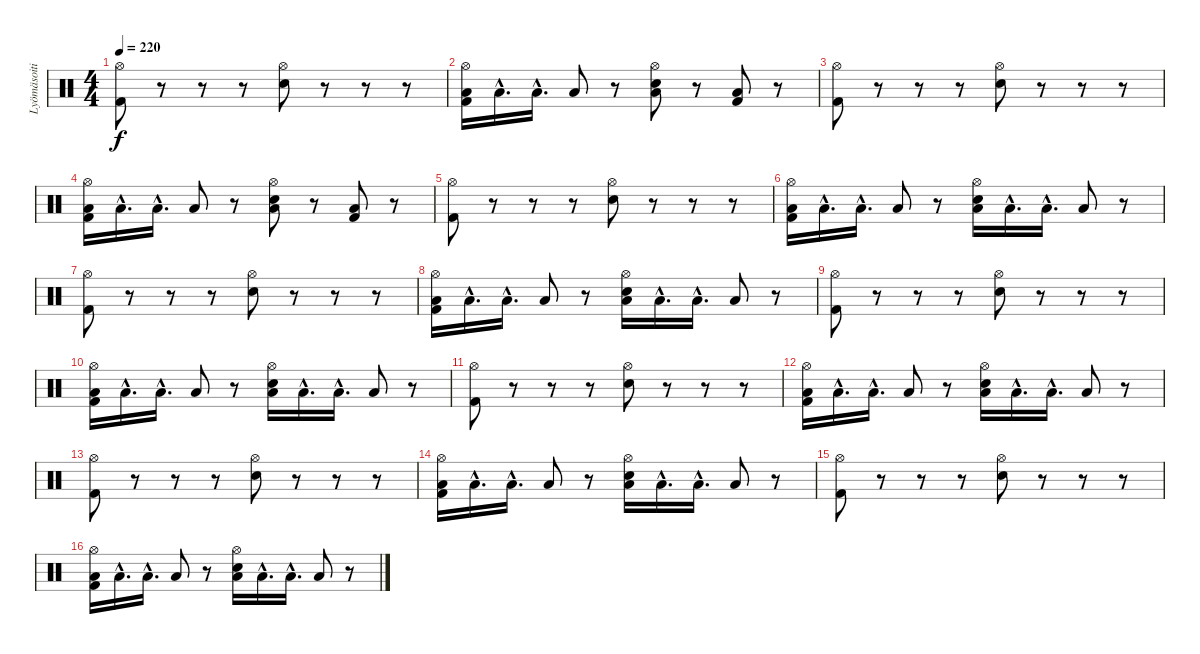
\track ("Lyömäsoitin" "Lyömäsoiti") {instrument percussion}
\staff {score}
\articulation defaults
\ts (4 4)
\tempo 220
\clef neutral
\ks c
("Hi-Hat (open)" "Kick (hit) 2").8{dy f} r.8 r.8 r.8 ("Hi-Hat (open)" "Electric Snare (hit)").8 r.8 r.8 r.8 |
("Low Floor Tom (hit)" "Hi-Hat (open)" "Kick (hit) 2").16 "Low Floor Tom (hit)"{hac}.16{d} "Low Floor Tom (hit)"{hac}.16{d} "Low Floor Tom (hit)".8 r.8 ("Low Floor Tom (hit)" "Hi-Hat (open)" "Electric Snare (hit)").8 r.8 ("Low Floor Tom (hit)" "Kick (hit) 2").8 r.8 |
("Hi-Hat (open)" "Kick (hit) 2").8 r.8 r.8 r.8 ("Hi-Hat (open)" "Electric Snare (hit)").8 r.8 r.8 r.8 |
("Low Floor Tom (hit)" "Hi-Hat (open)" "Kick (hit) 2").16 "Low Floor Tom (hit)"{hac}.16{d} "Low Floor Tom (hit)"{hac}.16{d} "Low Floor Tom (hit)".8 r.8 ("Low Floor Tom (hit)" "Hi-Hat (open)" "Electric Snare (hit)").8 r.8 ("Low Floor Tom (hit)" "Kick (hit) 2").8 r.8 |
("Hi-Hat (open)" "Kick (hit) 2").8 r.8 r.8 r.8 ("Hi-Hat (open)" "Electric Snare (hit)").8 r.8 r.8 r.8 |
("Low Floor Tom (hit)" "Hi-Hat (open)" "Kick (hit) 2").16 "Low Floor Tom (hit)"{hac}.16{d} "Low Floor Tom (hit)"{hac}.16{d} "Low Floor Tom (hit)".8 r.8 ("Low Floor Tom (hit)" "Hi-Hat (open)" "Electric Snare (hit)").16 "Low Floor Tom (hit)"{hac}.16{d} "Low Floor Tom (hit)"{hac}.16{d} "Low Floor Tom (hit)".8 r.8 |
("Hi-Hat (open)" "Kick (hit) 2").8 r.8 r.8 r.8 ("Hi-Hat (open)" "Electric Snare (hit)").8 r.8 r.8 r.8 |
("Low Floor Tom (hit)" "Hi-Hat (open)" "Kick (hit) 2").16 "Low Floor Tom (hit)"{hac}.16{d} "Low Floor Tom (hit)"{hac}.16{d} "Low Floor Tom (hit)".8 r.8 ("Low Floor Tom (hit)" "Hi-Hat (open)" "Electric Snare (hit)").16 "Low Floor Tom (hit)"{hac}.16{d} "Low Floor Tom (hit)"{hac}.16{d} "Low Floor Tom (hit)".8 r.8 |
("Hi-Hat (open)" "Kick (hit) 2").8 r.8 r.8 r.8 ("Hi-Hat (open)" "Electric Snare (hit)").8 r.8 r.8 r.8 |
("Low Floor Tom (hit)" "Hi-Hat (open)" "Kick (hit) 2").16 "Low Floor Tom (hit)"{hac}.16{d} "Low Floor Tom (hit)"{hac}.16{d} "Low Floor Tom (hit)".8 r.8 ("Low Floor Tom (hit)" "Hi-Hat (open)" "Electric Snare (hit)").16 "Low Floor Tom (hit)"{hac}.16{d} "Low Floor Tom (hit)"{hac}.16{d} "Low Floor Tom (hit)".8 r.8 |
("Hi-Hat (open)" "Kick (hit) 2").8 r.8 r.8 r.8 ("Hi-Hat (open)" "Electric Snare (hit)").8 r.8 r.8 r.8 |
("Low Floor Tom (hit)" "Hi-Hat (open)" "Kick (hit) 2").16 "Low Floor Tom (hit)"{hac}.16{d} "Low Floor Tom (hit)"{hac}.16{d} "Low Floor Tom (hit)".8 r.8 ("Low Floor Tom (hit)" "Hi-Hat (open)" "Electric Snare (hit)").16 "Low Floor Tom (hit)"{hac}.16{d} "Low Floor Tom (hit)"{hac}.16{d} "Low Floor Tom (hit)".8 r.8 |
("Hi-Hat (open)" "Kick (hit) 2").8 r.8 r.8 r.8 ("Hi-Hat (open)" "Electric Snare (hit)").8 r.8 r.8 r.8 |
("Low Floor Tom (hit)" "Hi-Hat (open)" "Kick (hit) 2").16 "Low Floor Tom (hit)"{hac}.16{d} "Low Floor Tom (hit)"{hac}.16{d} "Low Floor Tom (hit)".8 r.8 ("Low Floor Tom (hit)" "Hi-Hat (open)" "Electric Snare (hit)").16 "Low Floor Tom (hit)"{hac}.16{d} "Low Floor Tom (hit)"{hac}.16{d} "Low Floor Tom (hit)".8 r.8 |
("Hi-Hat (open)" "Kick (hit) 2").8 r.8 r.8 r.8 ("Hi-Hat (open)" "Electric Snare (hit)").8 r.8 r.8 r.8 |
("Low Floor Tom (hit)" "Hi-Hat (open)" "Kick (hit) 2").16 "Low Floor Tom (hit)"{hac}.16{d} "Low Floor Tom (hit)"{hac}.16{d} "Low Floor Tom (hit)".8 r.8 ("Low Floor Tom (hit)" "Hi-Hat (open)" "Electric Snare (hit)").16 "Low Floor Tom (hit)"{hac}.16{d} "Low Floor Tom (hit)"{hac}.16{d} "Low Floor Tom (hit)".8 r.8
